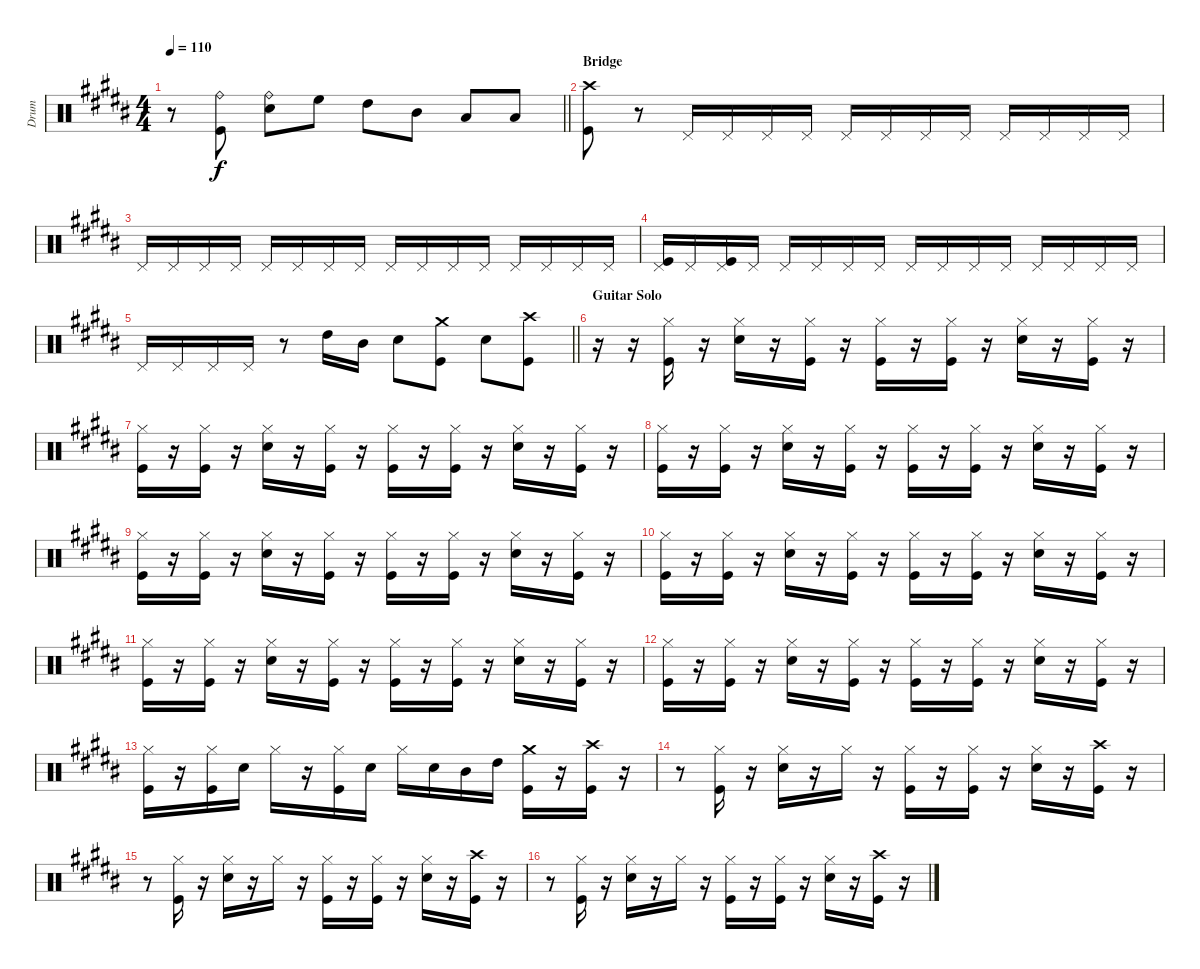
\track ("Drum" "Drum") {instrument percussion}
\staff {score}
\articulation defaults
\ts (4 4)
\tempo 110
\clef neutral
\barLineRight lightlight
\ks b
r.8{dy f} ("Kick (hit)" "Ride (bell)").8 ("Snare (hit) 2" "Ride (bell)").8 "High Floor Tom (hit)".8 "High Tom (hit)".8 "Mid Tom (hit)".8 "Low Tom (hit)".8 "Low Tom (hit)".8 |
\section ("" "Bridge")
\ks g#minor
("Kick (hit)" "Crash high (hit)").8 r.8 "Pedal Hi-Hat (hit)".16 "Pedal Hi-Hat (hit)".16 "Pedal Hi-Hat (hit)".16 "Pedal Hi-Hat (hit)".16 "Pedal Hi-Hat (hit)".16 "Pedal Hi-Hat (hit)".16 "Pedal Hi-Hat (hit)".16 "Pedal Hi-Hat (hit)".16 "Pedal Hi-Hat (hit)".16 "Pedal Hi-Hat (hit)".16 "Pedal Hi-Hat (hit)".16 "Pedal Hi-Hat (hit)".16 |
"Pedal Hi-Hat (hit)".16 "Pedal Hi-Hat (hit)".16 "Pedal Hi-Hat (hit)".16 "Pedal Hi-Hat (hit)".16 "Pedal Hi-Hat (hit)".16 "Pedal Hi-Hat (hit)".16 "Pedal Hi-Hat (hit)".16 "Pedal Hi-Hat (hit)".16 "Pedal Hi-Hat (hit)".16 "Pedal Hi-Hat (hit)".16 "Pedal Hi-Hat (hit)".16 "Pedal Hi-Hat (hit)".16 "Pedal Hi-Hat (hit)".16 "Pedal Hi-Hat (hit)".16 "Pedal Hi-Hat (hit)".16 "Pedal Hi-Hat (hit)".16 |
("Pedal Hi-Hat (hit)" "Kick (hit)").16 "Pedal Hi-Hat (hit)".16 ("Pedal Hi-Hat (hit)" "Kick (hit)").16 "Pedal Hi-Hat (hit)".16 "Pedal Hi-Hat (hit)".16 "Pedal Hi-Hat (hit)".16 "Pedal Hi-Hat (hit)".16 "Pedal Hi-Hat (hit)".16 "Pedal Hi-Hat (hit)".16 "Pedal Hi-Hat (hit)".16 "Pedal Hi-Hat (hit)".16 "Pedal Hi-Hat (hit)".16 "Pedal Hi-Hat (hit)".16 "Pedal Hi-Hat (hit)".16 "Pedal Hi-Hat (hit)".16 "Pedal Hi-Hat (hit)".16 |
\barLineRight lightlight "Pedal Hi-Hat (hit)".16 "Pedal Hi-Hat (hit)".16 "Pedal Hi-Hat (hit)".16 "Pedal Hi-Hat (hit)".16
r.8 "High Tom (hit)".16 "Mid Tom (hit)".16 "Snare (hit) 2".8 ("Kick (hit)" "Crash medium (hit)").8 "Snare (hit) 2".8 ("Kick (hit)" "Crash high (hit)").8 |
\section ("" "Guitar Solo")
r.16 r.16 ("Kick (hit)" "Hi-Hat (closed)").16 r.16 ("Snare (hit) 2" "Hi-Hat (closed)").16 r.16 ("Kick (hit)" "Hi-Hat (closed)").16 r.16 ("Kick (hit)" "Hi-Hat (closed)").16 r.16 ("Kick (hit)" "Hi-Hat (closed)").16 r.16 ("Snare (hit) 2" "Hi-Hat (closed)").16 r.16 ("Kick (hit)" "Hi-Hat (closed)").16 r.16 |
("Kick (hit)" "Hi-Hat (closed)").16 r.16 ("Kick (hit)" "Hi-Hat (closed)").16 r.16 ("Snare (hit) 2" "Hi-Hat (closed)").16 r.16 ("Kick (hit)" "Hi-Hat (closed)").16 r.16 ("Kick (hit)" "Hi-Hat (closed)").16 r.16 ("Kick (hit)" "Hi-Hat (closed)").16 r.16 ("Snare (hit) 2" "Hi-Hat (closed)").16 r.16 ("Kick (hit)" "Hi-Hat (closed)").16 r.16 |
\ks b
("Kick (hit)" "Hi-Hat (closed)").16 r.16 ("Kick (hit)" "Hi-Hat (closed)").16 r.16 ("Snare (hit) 2" "Hi-Hat (closed)").16 r.16 ("Kick (hit)" "Hi-Hat (closed)").16 r.16 ("Kick (hit)" "Hi-Hat (closed)").16 r.16 ("Kick (hit)" "Hi-Hat (closed)").16 r.16 ("Snare (hit) 2" "Hi-Hat (closed)").16 r.16 ("Kick (hit)" "Hi-Hat (closed)").16 r.16 |
\ks g#minor
("Kick (hit)" "Hi-Hat (closed)").16 r.16 ("Kick (hit)" "Hi-Hat (closed)").16 r.16 ("Snare (hit) 2" "Hi-Hat (closed)").16 r.16 ("Kick (hit)" "Hi-Hat (closed)").16 r.16 ("Kick (hit)" "Hi-Hat (closed)").16 r.16 ("Kick (hit)" "Hi-Hat (closed)").16 r.16 ("Snare (hit) 2" "Hi-Hat (closed)").16 r.16 ("Kick (hit)" "Hi-Hat (closed)").16 r.16 |
("Kick (hit)" "Hi-Hat (closed)").16 r.16 ("Kick (hit)" "Hi-Hat (closed)").16 r.16 ("Snare (hit) 2" "Hi-Hat (closed)").16 r.16 ("Kick (hit)" "Hi-Hat (closed)").16 r.16 ("Kick (hit)" "Hi-Hat (closed)").16 r.16 ("Kick (hit)" "Hi-Hat (closed)").16 r.16 ("Snare (hit) 2" "Hi-Hat (closed)").16 r.16 ("Kick (hit)" "Hi-Hat (closed)").16 r.16 |
("Kick (hit)" "Hi-Hat (closed)").16 r.16 ("Kick (hit)" "Hi-Hat (closed)").16 r.16 ("Snare (hit) 2" "Hi-Hat (closed)").16 r.16 ("Kick (hit)" "Hi-Hat (closed)").16 r.16 ("Kick (hit)" "Hi-Hat (closed)").16 r.16 ("Kick (hit)" "Hi-Hat (closed)").16 r.16 ("Snare (hit) 2" "Hi-Hat (closed)").16 r.16 ("Kick (hit)" "Hi-Hat (closed)").16 r.16 |
("Kick (hit)" "Hi-Hat (closed)").16 r.16 ("Kick (hit)" "Hi-Hat (closed)").16 r.16 ("Snare (hit) 2" "Hi-Hat (closed)").16 r.16 ("Kick (hit)" "Hi-Hat (closed)").16 r.16 ("Kick (hit)" "Hi-Hat (closed)").16 r.16 ("Kick (hit)" "Hi-Hat (closed)").16 r.16 ("Snare (hit) 2" "Hi-Hat (closed)").16 r.16 ("Kick (hit)" "Hi-Hat (closed)").16 r.16 |
("Kick (hit)" "Hi-Hat (closed)").16 r.16 ("Kick (hit)" "Hi-Hat (closed)").16 "Snare (hit) 2".16 "Hi-Hat (closed)".16 r.16 ("Kick (hit)" "Hi-Hat (closed)").16 "Snare (hit) 2".16 "Hi-Hat (closed)".16 "Snare (hit) 2".16 "Mid Tom (hit)".16 "High Tom (hit)".16 ("Kick (hit)" "Crash medium (hit)").16 r.16 ("Kick (hit)" "Crash high (hit)").16 r.16 |
r.8 ("Kick (hit)" "Hi-Hat (closed)").16 r.16 ("Snare (hit) 2" "Hi-Hat (closed)").16 r.16 "Hi-Hat (closed)".16 r.16 ("Kick (hit)" "Hi-Hat (closed)").16 r.16 ("Kick (hit)" "Hi-Hat (closed)").16 r.16 ("Snare (hit) 2" "Hi-Hat (closed)").16 r.16 ("Kick (hit)" "Crash high (hit)").16 r.16 |
r.8 ("Kick (hit)" "Hi-Hat (closed)").16 r.16 ("Snare (hit) 2" "Hi-Hat (closed)").16 r.16 "Hi-Hat (closed)".16 r.16 ("Kick (hit)" "Hi-Hat (closed)").16 r.16 ("Kick (hit)" "Hi-Hat (closed)").16 r.16 ("Snare (hit) 2" "Hi-Hat (closed)").16 r.16 ("Kick (hit)" "Crash high (hit)").16 r.16 |
r.8 ("Kick (hit)" "Hi-Hat (closed)").16 r.16 ("Snare (hit) 2" "Hi-Hat (closed)").16 r.16 "Hi-Hat (closed)".16 r.16 ("Kick (hit)" "Hi-Hat (closed)").16 r.16 ("Kick (hit)" "Hi-Hat (closed)").16 r.16 ("Snare (hit) 2" "Hi-Hat (closed)").16 r.16 ("Kick (hit)" "Crash high (hit)").16 r.16
